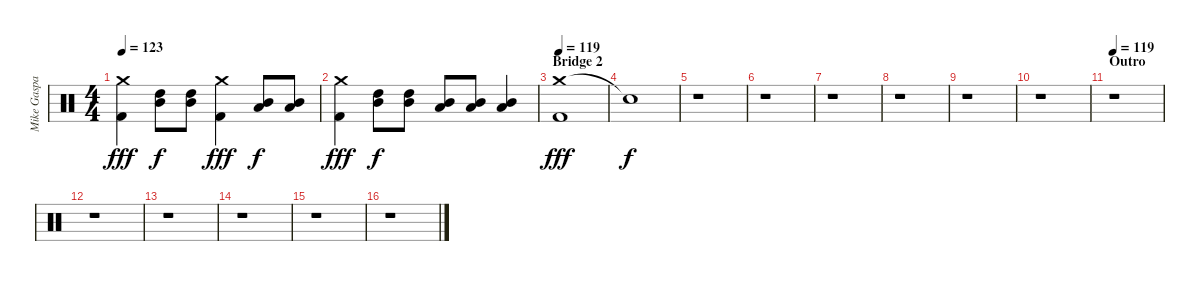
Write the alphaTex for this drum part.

\track ("Mike Gaspar (Drums)" "Mike Gaspa") {instrument percussion}
\staff {score}
\articulation defaults
\ts (4 4)
\tempo 123
\clef neutral
\ks c
("Crash medium (hit)" "Kick (hit) 2").4{dy fff} ("High Tom (hit)" "Mid Tom (hit)").8{dy f} ("High Tom (hit)" "Mid Tom (hit)").8 ("Crash medium (hit)" "Kick (hit) 2").4{dy fff} ("Mid Tom (hit)" "Low Tom (hit)").8{dy f} ("Mid Tom (hit)" "Low Tom (hit)").8 |
("Crash medium (hit)" "Kick (hit) 2").4{dy fff} ("High Tom (hit)" "Mid Tom (hit)").8{dy f} ("High Tom (hit)" "Mid Tom (hit)").8 ("Mid Tom (hit)" "Low Tom (hit)").8 ("Mid Tom (hit)" "Low Tom (hit)").8 ("Mid Tom (hit)" "Low Tom (hit)").4 |
\section ("" "Bridge 2")
\tempo 119
("Crash medium (hit)" "Kick (hit) 2").1{dy fff} |
"Snare (hit)"{t}.1{dy f} |
r.1 |
r.1 |
r.1 |
r.1 |
r.1 |
r.1 |
\section ("" "Outro")
\tempo 119
r.1 |
r.1 |
r.1 |
r.1 |
r.1 |
r.1
